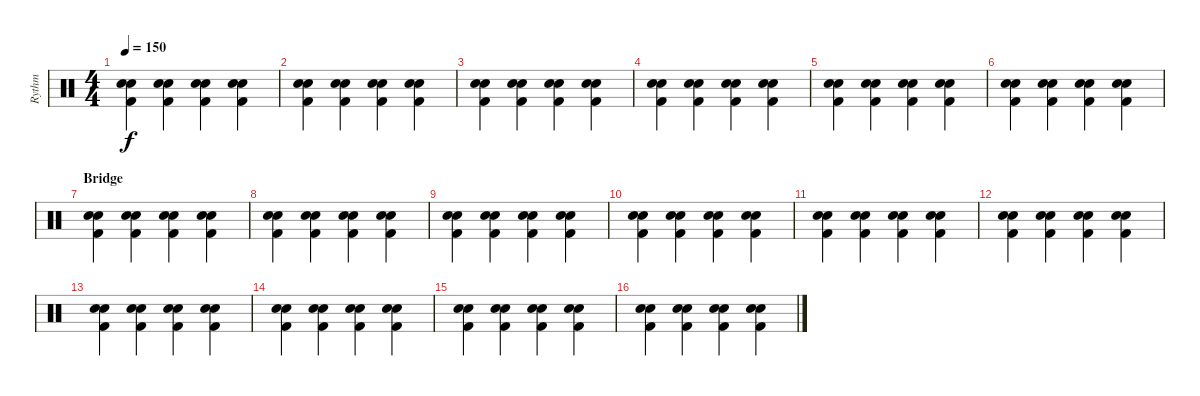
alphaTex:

\track ("Rythm" "Rythm") {instrument percussion}
\staff {score}
\articulation defaults
\ts (4 4)
\tempo 150
\clef neutral
\ks c
("Electric Snare (hit)" "Kick (hit) 2" "Snare (hit) 2").4{dy f} ("Electric Snare (hit)" "Kick (hit) 2" "Snare (hit) 2").4 ("Electric Snare (hit)" "Kick (hit) 2" "Snare (hit) 2").4 ("Electric Snare (hit)" "Kick (hit) 2" "Snare (hit) 2").4 |
("Electric Snare (hit)" "Kick (hit) 2" "Snare (hit) 2").4 ("Electric Snare (hit)" "Kick (hit) 2" "Snare (hit) 2").4 ("Electric Snare (hit)" "Kick (hit) 2" "Snare (hit) 2").4 ("Electric Snare (hit)" "Kick (hit) 2" "Snare (hit) 2").4 |
("Electric Snare (hit)" "Kick (hit) 2" "Snare (hit) 2").4 ("Electric Snare (hit)" "Kick (hit) 2" "Snare (hit) 2").4 ("Electric Snare (hit)" "Kick (hit) 2" "Snare (hit) 2").4 ("Electric Snare (hit)" "Kick (hit) 2" "Snare (hit) 2").4 |
("Electric Snare (hit)" "Kick (hit) 2" "Snare (hit) 2").4 ("Electric Snare (hit)" "Kick (hit) 2" "Snare (hit) 2").4 ("Electric Snare (hit)" "Kick (hit) 2" "Snare (hit) 2").4 ("Electric Snare (hit)" "Kick (hit) 2" "Snare (hit) 2").4 |
("Electric Snare (hit)" "Kick (hit) 2" "Snare (hit) 2").4 ("Electric Snare (hit)" "Kick (hit) 2" "Snare (hit) 2").4 ("Electric Snare (hit)" "Kick (hit) 2" "Snare (hit) 2").4 ("Electric Snare (hit)" "Kick (hit) 2" "Snare (hit) 2").4 |
("Electric Snare (hit)" "Kick (hit) 2" "Snare (hit) 2").4 ("Electric Snare (hit)" "Kick (hit) 2" "Snare (hit) 2").4 ("Electric Snare (hit)" "Kick (hit) 2" "Snare (hit) 2").4 ("Electric Snare (hit)" "Kick (hit) 2" "Snare (hit) 2").4 |
\section ("" "Bridge")
("Electric Snare (hit)" "Kick (hit) 2" "Snare (hit) 2").4 ("Electric Snare (hit)" "Kick (hit) 2" "Snare (hit) 2").4 ("Electric Snare (hit)" "Kick (hit) 2" "Snare (hit) 2").4 ("Electric Snare (hit)" "Kick (hit) 2" "Snare (hit) 2").4 |
("Electric Snare (hit)" "Kick (hit) 2" "Snare (hit) 2").4 ("Electric Snare (hit)" "Kick (hit) 2" "Snare (hit) 2").4 ("Electric Snare (hit)" "Kick (hit) 2" "Snare (hit) 2").4 ("Electric Snare (hit)" "Kick (hit) 2" "Snare (hit) 2").4 |
("Electric Snare (hit)" "Kick (hit) 2" "Snare (hit) 2").4 ("Electric Snare (hit)" "Kick (hit) 2" "Snare (hit) 2").4 ("Electric Snare (hit)" "Kick (hit) 2" "Snare (hit) 2").4 ("Electric Snare (hit)" "Kick (hit) 2" "Snare (hit) 2").4 |
("Electric Snare (hit)" "Kick (hit) 2" "Snare (hit) 2").4 ("Electric Snare (hit)" "Kick (hit) 2" "Snare (hit) 2").4 ("Electric Snare (hit)" "Kick (hit) 2" "Snare (hit) 2").4 ("Electric Snare (hit)" "Kick (hit) 2" "Snare (hit) 2").4 |
("Electric Snare (hit)" "Kick (hit) 2" "Snare (hit) 2").4 ("Electric Snare (hit)" "Kick (hit) 2" "Snare (hit) 2").4 ("Electric Snare (hit)" "Kick (hit) 2" "Snare (hit) 2").4 ("Electric Snare (hit)" "Kick (hit) 2" "Snare (hit) 2").4 |
("Electric Snare (hit)" "Kick (hit) 2" "Snare (hit) 2").4 ("Electric Snare (hit)" "Kick (hit) 2" "Snare (hit) 2").4 ("Electric Snare (hit)" "Kick (hit) 2" "Snare (hit) 2").4 ("Electric Snare (hit)" "Kick (hit) 2" "Snare (hit) 2").4 |
("Electric Snare (hit)" "Kick (hit) 2" "Snare (hit) 2").4 ("Electric Snare (hit)" "Kick (hit) 2" "Snare (hit) 2").4 ("Electric Snare (hit)" "Kick (hit) 2" "Snare (hit) 2").4 ("Electric Snare (hit)" "Kick (hit) 2" "Snare (hit) 2").4 |
("Electric Snare (hit)" "Kick (hit) 2" "Snare (hit) 2").4 ("Electric Snare (hit)" "Kick (hit) 2" "Snare (hit) 2").4 ("Electric Snare (hit)" "Kick (hit) 2" "Snare (hit) 2").4 ("Electric Snare (hit)" "Kick (hit) 2" "Snare (hit) 2").4 |
("Electric Snare (hit)" "Kick (hit) 2" "Snare (hit) 2").4 ("Electric Snare (hit)" "Kick (hit) 2" "Snare (hit) 2").4 ("Electric Snare (hit)" "Kick (hit) 2" "Snare (hit) 2").4 ("Electric Snare (hit)" "Kick (hit) 2" "Snare (hit) 2").4 |
("Electric Snare (hit)" "Kick (hit) 2" "Snare (hit) 2").4 ("Electric Snare (hit)" "Kick (hit) 2" "Snare (hit) 2").4 ("Electric Snare (hit)" "Kick (hit) 2" "Snare (hit) 2").4 ("Electric Snare (hit)" "Kick (hit) 2" "Snare (hit) 2").4
